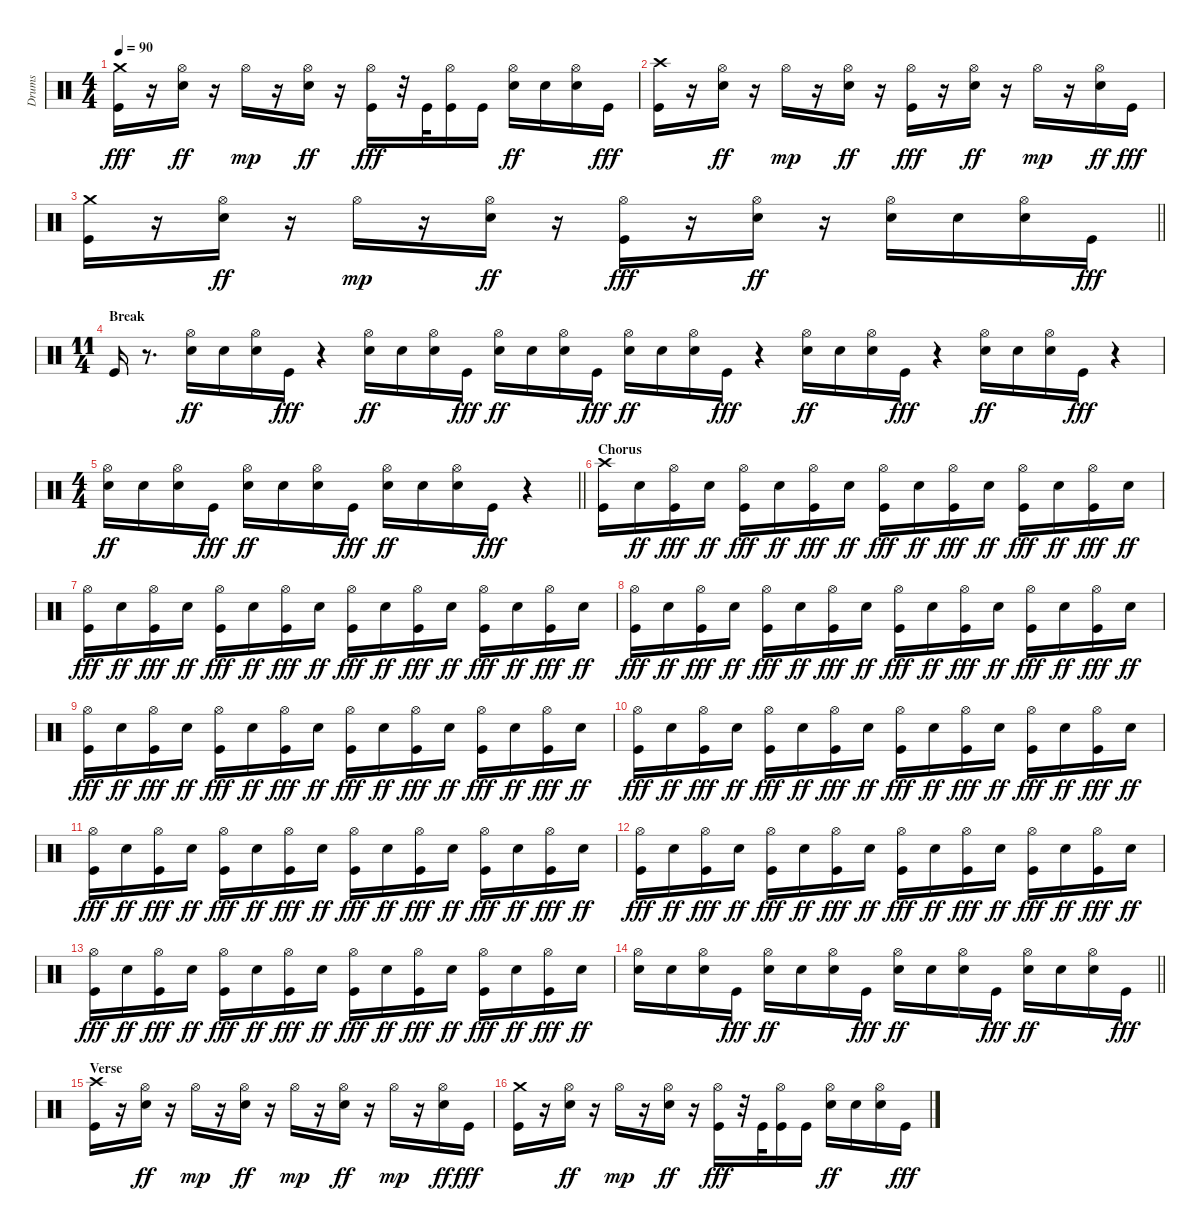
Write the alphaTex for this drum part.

\track ("Drums" "Drums") {instrument percussion}
\staff {score}
\articulation defaults
\ts (4 4)
\tempo 90
\clef neutral
\ks c
("Crash medium (hit)" "Kick (hit)").16{dy fff} r.16 ("Hi-Hat (open)" "Electric Snare (hit)").16{dy ff} r.16 "Hi-Hat (open)".16{dy mp} r.16 ("Hi-Hat (open)" "Electric Snare (hit)").16{dy ff} r.16 ("Hi-Hat (open)" "Kick (hit)").16{dy fff} r.32 "Kick (hit)".32 ("Hi-Hat (open)" "Kick (hit)").16 "Kick (hit)".16 ("Hi-Hat (open)" "Electric Snare (hit)").16{dy ff} "Electric Snare (hit)".16 ("Hi-Hat (open)" "Electric Snare (hit)").16 "Kick (hit)".16{dy fff} |
("Crash high (hit)" "Kick (hit)").16 r.16 ("Hi-Hat (open)" "Electric Snare (hit)").16{dy ff} r.16 "Hi-Hat (open)".16{dy mp} r.16 ("Hi-Hat (open)" "Electric Snare (hit)").16{dy ff} r.16 ("Hi-Hat (open)" "Kick (hit)").16{dy fff} r.16 ("Hi-Hat (open)" "Electric Snare (hit)").16{dy ff} r.16 "Hi-Hat (open)".16{dy mp} r.16 ("Hi-Hat (open)" "Electric Snare (hit)").16{dy ff} "Kick (hit)".16{dy fff} |
\barLineRight lightlight
("Crash medium (hit)" "Kick (hit)").16 r.16 ("Hi-Hat (open)" "Electric Snare (hit)").16{dy ff} r.16 "Hi-Hat (open)".16{dy mp} r.16 ("Hi-Hat (open)" "Electric Snare (hit)").16{dy ff} r.16 ("Hi-Hat (open)" "Kick (hit)").16{dy fff} r.16 ("Hi-Hat (open)" "Electric Snare (hit)").16{dy ff} r.16 ("Hi-Hat (open)" "Electric Snare (hit)").16 "Electric Snare (hit)".16 ("Hi-Hat (open)" "Electric Snare (hit)").16 "Kick (hit)".16{dy fff} |
\ts (11 4)
\section ("" "Break")
"Kick (hit)".16 r.8{d} ("Hi-Hat (open)" "Electric Snare (hit)").16{dy ff} "Electric Snare (hit)".16 ("Hi-Hat (open)" "Electric Snare (hit)").16 "Kick (hit)".16{dy fff} r.4 ("Hi-Hat (open)" "Electric Snare (hit)").16{dy ff} "Electric Snare (hit)".16 ("Hi-Hat (open)" "Electric Snare (hit)").16 "Kick (hit)".16{dy fff} ("Hi-Hat (open)" "Electric Snare (hit)").16{dy ff} "Electric Snare (hit)".16 ("Hi-Hat (open)" "Electric Snare (hit)").16 "Kick (hit)".16{dy fff} ("Hi-Hat (open)" "Electric Snare (hit)").16{dy ff} "Electric Snare (hit)".16 ("Hi-Hat (open)" "Electric Snare (hit)").16 "Kick (hit)".16{dy fff} r.4 ("Hi-Hat (open)" "Electric Snare (hit)").16{dy ff} "Electric Snare (hit)".16 ("Hi-Hat (open)" "Electric Snare (hit)").16 "Kick (hit)".16{dy fff} r.4 ("Hi-Hat (open)" "Electric Snare (hit)").16{dy ff} "Electric Snare (hit)".16 ("Hi-Hat (open)" "Electric Snare (hit)").16 "Kick (hit)".16{dy fff} r.4 |
\ts (4 4)
\barLineRight lightlight
("Hi-Hat (open)" "Electric Snare (hit)").16{dy ff} "Electric Snare (hit)".16 ("Hi-Hat (open)" "Electric Snare (hit)").16 "Kick (hit)".16{dy fff} ("Hi-Hat (open)" "Electric Snare (hit)").16{dy ff} "Electric Snare (hit)".16 ("Hi-Hat (open)" "Electric Snare (hit)").16 "Kick (hit)".16{dy fff} ("Hi-Hat (open)" "Electric Snare (hit)").16{dy ff} "Electric Snare (hit)".16 ("Hi-Hat (open)" "Electric Snare (hit)").16 "Kick (hit)".16{dy fff} r.4 |
\section ("" "Chorus")
("Crash high (hit)" "Kick (hit)").16 "Electric Snare (hit)".16{dy ff} ("Hi-Hat (open)" "Kick (hit)").16{dy fff} "Electric Snare (hit)".16{dy ff} ("Hi-Hat (open)" "Kick (hit)").16{dy fff} "Electric Snare (hit)".16{dy ff} ("Hi-Hat (open)" "Kick (hit)").16{dy fff} "Electric Snare (hit)".16{dy ff} ("Hi-Hat (open)" "Kick (hit)").16{dy fff} "Electric Snare (hit)".16{dy ff} ("Hi-Hat (open)" "Kick (hit)").16{dy fff} "Electric Snare (hit)".16{dy ff} ("Hi-Hat (open)" "Kick (hit)").16{dy fff} "Electric Snare (hit)".16{dy ff} ("Hi-Hat (open)" "Kick (hit)").16{dy fff} "Electric Snare (hit)".16{dy ff} |
("Hi-Hat (open)" "Kick (hit)").16{dy fff} "Electric Snare (hit)".16{dy ff} ("Hi-Hat (open)" "Kick (hit)").16{dy fff} "Electric Snare (hit)".16{dy ff} ("Hi-Hat (open)" "Kick (hit)").16{dy fff} "Electric Snare (hit)".16{dy ff} ("Hi-Hat (open)" "Kick (hit)").16{dy fff} "Electric Snare (hit)".16{dy ff} ("Hi-Hat (open)" "Kick (hit)").16{dy fff} "Electric Snare (hit)".16{dy ff} ("Hi-Hat (open)" "Kick (hit)").16{dy fff} "Electric Snare (hit)".16{dy ff} ("Hi-Hat (open)" "Kick (hit)").16{dy fff} "Electric Snare (hit)".16{dy ff} ("Hi-Hat (open)" "Kick (hit)").16{dy fff} "Electric Snare (hit)".16{dy ff} |
("Hi-Hat (open)" "Kick (hit)").16{dy fff} "Electric Snare (hit)".16{dy ff} ("Hi-Hat (open)" "Kick (hit)").16{dy fff} "Electric Snare (hit)".16{dy ff} ("Hi-Hat (open)" "Kick (hit)").16{dy fff} "Electric Snare (hit)".16{dy ff} ("Hi-Hat (open)" "Kick (hit)").16{dy fff} "Electric Snare (hit)".16{dy ff} ("Hi-Hat (open)" "Kick (hit)").16{dy fff} "Electric Snare (hit)".16{dy ff} ("Hi-Hat (open)" "Kick (hit)").16{dy fff} "Electric Snare (hit)".16{dy ff} ("Hi-Hat (open)" "Kick (hit)").16{dy fff} "Electric Snare (hit)".16{dy ff} ("Hi-Hat (open)" "Kick (hit)").16{dy fff} "Electric Snare (hit)".16{dy ff} |
("Hi-Hat (open)" "Kick (hit)").16{dy fff} "Electric Snare (hit)".16{dy ff} ("Hi-Hat (open)" "Kick (hit)").16{dy fff} "Electric Snare (hit)".16{dy ff} ("Hi-Hat (open)" "Kick (hit)").16{dy fff} "Electric Snare (hit)".16{dy ff} ("Hi-Hat (open)" "Kick (hit)").16{dy fff} "Electric Snare (hit)".16{dy ff} ("Hi-Hat (open)" "Kick (hit)").16{dy fff} "Electric Snare (hit)".16{dy ff} ("Hi-Hat (open)" "Kick (hit)").16{dy fff} "Electric Snare (hit)".16{dy ff} ("Hi-Hat (open)" "Kick (hit)").16{dy fff} "Electric Snare (hit)".16{dy ff} ("Hi-Hat (open)" "Kick (hit)").16{dy fff} "Electric Snare (hit)".16{dy ff} |
("Hi-Hat (open)" "Kick (hit)").16{dy fff} "Electric Snare (hit)".16{dy ff} ("Hi-Hat (open)" "Kick (hit)").16{dy fff} "Electric Snare (hit)".16{dy ff} ("Hi-Hat (open)" "Kick (hit)").16{dy fff} "Electric Snare (hit)".16{dy ff} ("Hi-Hat (open)" "Kick (hit)").16{dy fff} "Electric Snare (hit)".16{dy ff} ("Hi-Hat (open)" "Kick (hit)").16{dy fff} "Electric Snare (hit)".16{dy ff} ("Hi-Hat (open)" "Kick (hit)").16{dy fff} "Electric Snare (hit)".16{dy ff} ("Hi-Hat (open)" "Kick (hit)").16{dy fff} "Electric Snare (hit)".16{dy ff} ("Hi-Hat (open)" "Kick (hit)").16{dy fff} "Electric Snare (hit)".16{dy ff} |
("Hi-Hat (open)" "Kick (hit)").16{dy fff} "Electric Snare (hit)".16{dy ff} ("Hi-Hat (open)" "Kick (hit)").16{dy fff} "Electric Snare (hit)".16{dy ff} ("Hi-Hat (open)" "Kick (hit)").16{dy fff} "Electric Snare (hit)".16{dy ff} ("Hi-Hat (open)" "Kick (hit)").16{dy fff} "Electric Snare (hit)".16{dy ff} ("Hi-Hat (open)" "Kick (hit)").16{dy fff} "Electric Snare (hit)".16{dy ff} ("Hi-Hat (open)" "Kick (hit)").16{dy fff} "Electric Snare (hit)".16{dy ff} ("Hi-Hat (open)" "Kick (hit)").16{dy fff} "Electric Snare (hit)".16{dy ff} ("Hi-Hat (open)" "Kick (hit)").16{dy fff} "Electric Snare (hit)".16{dy ff} |
("Hi-Hat (open)" "Kick (hit)").16{dy fff} "Electric Snare (hit)".16{dy ff} ("Hi-Hat (open)" "Kick (hit)").16{dy fff} "Electric Snare (hit)".16{dy ff} ("Hi-Hat (open)" "Kick (hit)").16{dy fff} "Electric Snare (hit)".16{dy ff} ("Hi-Hat (open)" "Kick (hit)").16{dy fff} "Electric Snare (hit)".16{dy ff} ("Hi-Hat (open)" "Kick (hit)").16{dy fff} "Electric Snare (hit)".16{dy ff} ("Hi-Hat (open)" "Kick (hit)").16{dy fff} "Electric Snare (hit)".16{dy ff} ("Hi-Hat (open)" "Kick (hit)").16{dy fff} "Electric Snare (hit)".16{dy ff} ("Hi-Hat (open)" "Kick (hit)").16{dy fff} "Electric Snare (hit)".16{dy ff} |
("Hi-Hat (open)" "Kick (hit)").16{dy fff} "Electric Snare (hit)".16{dy ff} ("Hi-Hat (open)" "Kick (hit)").16{dy fff} "Electric Snare (hit)".16{dy ff} ("Hi-Hat (open)" "Kick (hit)").16{dy fff} "Electric Snare (hit)".16{dy ff} ("Hi-Hat (open)" "Kick (hit)").16{dy fff} "Electric Snare (hit)".16{dy ff} ("Hi-Hat (open)" "Kick (hit)").16{dy fff} "Electric Snare (hit)".16{dy ff} ("Hi-Hat (open)" "Kick (hit)").16{dy fff} "Electric Snare (hit)".16{dy ff} ("Hi-Hat (open)" "Kick (hit)").16{dy fff} "Electric Snare (hit)".16{dy ff} ("Hi-Hat (open)" "Kick (hit)").16{dy fff} "Electric Snare (hit)".16{dy ff} |
\barLineRight lightlight
("Hi-Hat (open)" "Electric Snare (hit)").16 "Electric Snare (hit)".16 ("Hi-Hat (open)" "Electric Snare (hit)").16 "Kick (hit)".16{dy fff} ("Hi-Hat (open)" "Electric Snare (hit)").16{dy ff} "Electric Snare (hit)".16 ("Hi-Hat (open)" "Electric Snare (hit)").16 "Kick (hit)".16{dy fff} ("Hi-Hat (open)" "Electric Snare (hit)").16{dy ff} "Electric Snare (hit)".16 ("Hi-Hat (open)" "Electric Snare (hit)").16 "Kick (hit)".16{dy fff} ("Hi-Hat (open)" "Electric Snare (hit)").16{dy ff} "Electric Snare (hit)".16 ("Hi-Hat (open)" "Electric Snare (hit)").16 "Kick (hit)".16{dy fff} |
\section ("" "Verse")
("Crash high (hit)" "Kick (hit)").16 r.16 ("Hi-Hat (open)" "Electric Snare (hit)").16{dy ff} r.16 "Hi-Hat (open)".16{dy mp} r.16 ("Hi-Hat (open)" "Electric Snare (hit)").16{dy ff} r.16 "Hi-Hat (open)".16{dy mp} r.16 ("Hi-Hat (open)" "Electric Snare (hit)").16{dy ff} r.16 "Hi-Hat (open)".16{dy mp} r.16 ("Hi-Hat (open)" "Electric Snare (hit)").16{dy ff} "Kick (hit)".16{dy fff} |
("Crash medium (hit)" "Kick (hit)").16 r.16 ("Hi-Hat (open)" "Electric Snare (hit)").16{dy ff} r.16 "Hi-Hat (open)".16{dy mp} r.16 ("Hi-Hat (open)" "Electric Snare (hit)").16{dy ff} r.16 ("Hi-Hat (open)" "Kick (hit)").16{dy fff} r.32 "Kick (hit)".32 ("Hi-Hat (open)" "Kick (hit)").16 "Kick (hit)".16 ("Hi-Hat (open)" "Electric Snare (hit)").16{dy ff} "Electric Snare (hit)".16 ("Hi-Hat (open)" "Electric Snare (hit)").16 "Kick (hit)".16{dy fff}
